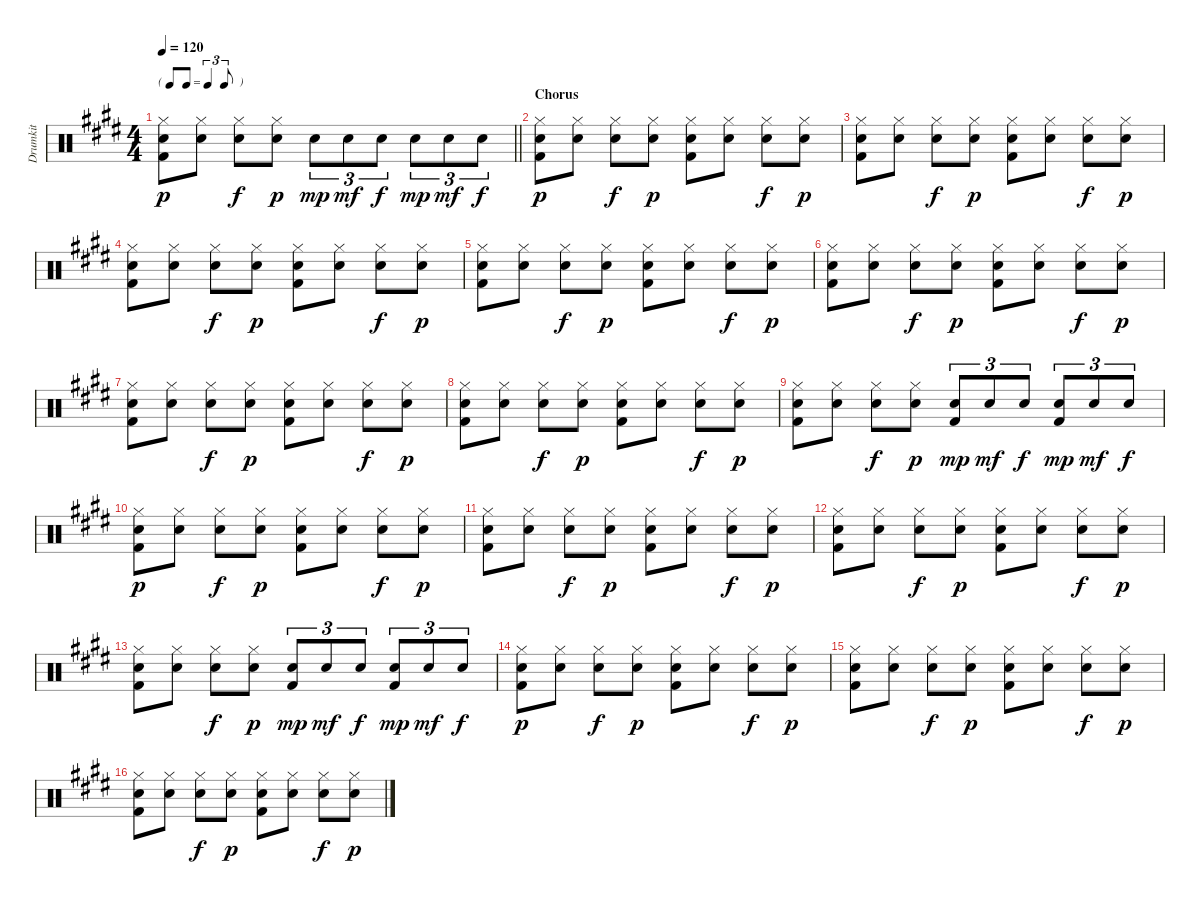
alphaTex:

\track ("Drumkit" "Drumkit") {instrument percussion}
\staff {score}
\articulation defaults
\ts (4 4)
\tf triplet8th
\tempo 120
\clef neutral
\barLineRight lightlight
\ks e
("Hi-Hat (closed)" "Snare (hit) 2" "Kick (hit) 2").8{dy p} ("Hi-Hat (closed)" "Snare (hit) 2").8 ("Hi-Hat (closed)" "Snare (hit) 2").8{dy f} ("Hi-Hat (closed)" "Snare (hit) 2").8{dy p} "Snare (hit) 2".8{tu (3 2) dy mp} "Snare (hit) 2".8{tu (3 2) dy mf} "Snare (hit) 2".8{tu (3 2) dy f} "Snare (hit) 2".8{tu (3 2) dy mp} "Snare (hit) 2".8{tu (3 2) dy mf} "Snare (hit) 2".8{tu (3 2) dy f} |
\section ("" "Chorus")
("Hi-Hat (closed)" "Snare (hit) 2" "Kick (hit) 2").8{dy p} ("Hi-Hat (closed)" "Snare (hit) 2").8 ("Hi-Hat (closed)" "Snare (hit) 2").8{dy f} ("Hi-Hat (closed)" "Snare (hit) 2").8{dy p} ("Hi-Hat (closed)" "Snare (hit) 2" "Kick (hit) 2").8 ("Hi-Hat (closed)" "Snare (hit) 2").8 ("Hi-Hat (closed)" "Snare (hit) 2").8{dy f} ("Hi-Hat (closed)" "Snare (hit) 2").8{dy p} |
("Hi-Hat (closed)" "Snare (hit) 2" "Kick (hit) 2").8 ("Hi-Hat (closed)" "Snare (hit) 2").8 ("Hi-Hat (closed)" "Snare (hit) 2").8{dy f} ("Hi-Hat (closed)" "Snare (hit) 2").8{dy p} ("Hi-Hat (closed)" "Snare (hit) 2" "Kick (hit) 2").8 ("Hi-Hat (closed)" "Snare (hit) 2").8 ("Hi-Hat (closed)" "Snare (hit) 2").8{dy f} ("Hi-Hat (closed)" "Snare (hit) 2").8{dy p} |
("Hi-Hat (closed)" "Snare (hit) 2" "Kick (hit) 2").8 ("Hi-Hat (closed)" "Snare (hit) 2").8 ("Hi-Hat (closed)" "Snare (hit) 2").8{dy f} ("Hi-Hat (closed)" "Snare (hit) 2").8{dy p} ("Hi-Hat (closed)" "Snare (hit) 2" "Kick (hit) 2").8 ("Hi-Hat (closed)" "Snare (hit) 2").8 ("Hi-Hat (closed)" "Snare (hit) 2").8{dy f} ("Hi-Hat (closed)" "Snare (hit) 2").8{dy p} |
("Hi-Hat (closed)" "Snare (hit) 2" "Kick (hit) 2").8 ("Hi-Hat (closed)" "Snare (hit) 2").8 ("Hi-Hat (closed)" "Snare (hit) 2").8{dy f} ("Hi-Hat (closed)" "Snare (hit) 2").8{dy p} ("Hi-Hat (closed)" "Snare (hit) 2" "Kick (hit) 2").8 ("Hi-Hat (closed)" "Snare (hit) 2").8 ("Hi-Hat (closed)" "Snare (hit) 2").8{dy f} ("Hi-Hat (closed)" "Snare (hit) 2").8{dy p} |
("Hi-Hat (closed)" "Snare (hit) 2" "Kick (hit) 2").8 ("Hi-Hat (closed)" "Snare (hit) 2").8 ("Hi-Hat (closed)" "Snare (hit) 2").8{dy f} ("Hi-Hat (closed)" "Snare (hit) 2").8{dy p} ("Hi-Hat (closed)" "Snare (hit) 2" "Kick (hit) 2").8 ("Hi-Hat (closed)" "Snare (hit) 2").8 ("Hi-Hat (closed)" "Snare (hit) 2").8{dy f} ("Hi-Hat (closed)" "Snare (hit) 2").8{dy p} |
("Hi-Hat (closed)" "Snare (hit) 2" "Kick (hit) 2").8 ("Hi-Hat (closed)" "Snare (hit) 2").8 ("Hi-Hat (closed)" "Snare (hit) 2").8{dy f} ("Hi-Hat (closed)" "Snare (hit) 2").8{dy p} ("Hi-Hat (closed)" "Snare (hit) 2" "Kick (hit) 2").8 ("Hi-Hat (closed)" "Snare (hit) 2").8 ("Hi-Hat (closed)" "Snare (hit) 2").8{dy f} ("Hi-Hat (closed)" "Snare (hit) 2").8{dy p} |
("Hi-Hat (closed)" "Snare (hit) 2" "Kick (hit) 2").8 ("Hi-Hat (closed)" "Snare (hit) 2").8 ("Hi-Hat (closed)" "Snare (hit) 2").8{dy f} ("Hi-Hat (closed)" "Snare (hit) 2").8{dy p} ("Hi-Hat (closed)" "Snare (hit) 2" "Kick (hit) 2").8 ("Hi-Hat (closed)" "Snare (hit) 2").8 ("Hi-Hat (closed)" "Snare (hit) 2").8{dy f} ("Hi-Hat (closed)" "Snare (hit) 2").8{dy p} |
("Hi-Hat (closed)" "Snare (hit) 2" "Kick (hit) 2").8 ("Hi-Hat (closed)" "Snare (hit) 2").8 ("Hi-Hat (closed)" "Snare (hit) 2").8{dy f} ("Hi-Hat (closed)" "Snare (hit) 2").8{dy p} ("Snare (hit) 2" "Kick (hit) 2").8{tu (3 2) dy mp} "Snare (hit) 2".8{tu (3 2) dy mf} "Snare (hit) 2".8{tu (3 2) dy f} ("Snare (hit) 2" "Kick (hit) 2").8{tu (3 2) dy mp} "Snare (hit) 2".8{tu (3 2) dy mf} "Snare (hit) 2".8{tu (3 2) dy f} |
("Hi-Hat (closed)" "Snare (hit) 2" "Kick (hit) 2").8{dy p} ("Hi-Hat (closed)" "Snare (hit) 2").8 ("Hi-Hat (closed)" "Snare (hit) 2").8{dy f} ("Hi-Hat (closed)" "Snare (hit) 2").8{dy p} ("Hi-Hat (closed)" "Snare (hit) 2" "Kick (hit) 2").8 ("Hi-Hat (closed)" "Snare (hit) 2").8 ("Hi-Hat (closed)" "Snare (hit) 2").8{dy f} ("Hi-Hat (closed)" "Snare (hit) 2").8{dy p} |
("Hi-Hat (closed)" "Snare (hit) 2" "Kick (hit) 2").8 ("Hi-Hat (closed)" "Snare (hit) 2").8 ("Hi-Hat (closed)" "Snare (hit) 2").8{dy f} ("Hi-Hat (closed)" "Snare (hit) 2").8{dy p} ("Hi-Hat (closed)" "Snare (hit) 2" "Kick (hit) 2").8 ("Hi-Hat (closed)" "Snare (hit) 2").8 ("Hi-Hat (closed)" "Snare (hit) 2").8{dy f} ("Hi-Hat (closed)" "Snare (hit) 2").8{dy p} |
("Hi-Hat (closed)" "Snare (hit) 2" "Kick (hit) 2").8 ("Hi-Hat (closed)" "Snare (hit) 2").8 ("Hi-Hat (closed)" "Snare (hit) 2").8{dy f} ("Hi-Hat (closed)" "Snare (hit) 2").8{dy p} ("Hi-Hat (closed)" "Snare (hit) 2" "Kick (hit) 2").8 ("Hi-Hat (closed)" "Snare (hit) 2").8 ("Hi-Hat (closed)" "Snare (hit) 2").8{dy f} ("Hi-Hat (closed)" "Snare (hit) 2").8{dy p} |
("Hi-Hat (closed)" "Snare (hit) 2" "Kick (hit) 2").8 ("Hi-Hat (closed)" "Snare (hit) 2").8 ("Hi-Hat (closed)" "Snare (hit) 2").8{dy f} ("Hi-Hat (closed)" "Snare (hit) 2").8{dy p} ("Snare (hit) 2" "Kick (hit) 2").8{tu (3 2) dy mp} "Snare (hit) 2".8{tu (3 2) dy mf} "Snare (hit) 2".8{tu (3 2) dy f} ("Snare (hit) 2" "Kick (hit) 2").8{tu (3 2) dy mp} "Snare (hit) 2".8{tu (3 2) dy mf} "Snare (hit) 2".8{tu (3 2) dy f} |
("Hi-Hat (closed)" "Snare (hit) 2" "Kick (hit) 2").8{dy p} ("Hi-Hat (closed)" "Snare (hit) 2").8 ("Hi-Hat (closed)" "Snare (hit) 2").8{dy f} ("Hi-Hat (closed)" "Snare (hit) 2").8{dy p} ("Hi-Hat (closed)" "Snare (hit) 2" "Kick (hit) 2").8 ("Hi-Hat (closed)" "Snare (hit) 2").8 ("Hi-Hat (closed)" "Snare (hit) 2").8{dy f} ("Hi-Hat (closed)" "Snare (hit) 2").8{dy p} |
("Hi-Hat (closed)" "Snare (hit) 2" "Kick (hit) 2").8 ("Hi-Hat (closed)" "Snare (hit) 2").8 ("Hi-Hat (closed)" "Snare (hit) 2").8{dy f} ("Hi-Hat (closed)" "Snare (hit) 2").8{dy p} ("Hi-Hat (closed)" "Snare (hit) 2" "Kick (hit) 2").8 ("Hi-Hat (closed)" "Snare (hit) 2").8 ("Hi-Hat (closed)" "Snare (hit) 2").8{dy f} ("Hi-Hat (closed)" "Snare (hit) 2").8{dy p} |
("Hi-Hat (closed)" "Snare (hit) 2" "Kick (hit) 2").8 ("Hi-Hat (closed)" "Snare (hit) 2").8 ("Hi-Hat (closed)" "Snare (hit) 2").8{dy f} ("Hi-Hat (closed)" "Snare (hit) 2").8{dy p} ("Hi-Hat (closed)" "Snare (hit) 2" "Kick (hit) 2").8 ("Hi-Hat (closed)" "Snare (hit) 2").8 ("Hi-Hat (closed)" "Snare (hit) 2").8{dy f} ("Hi-Hat (closed)" "Snare (hit) 2").8{dy p}
